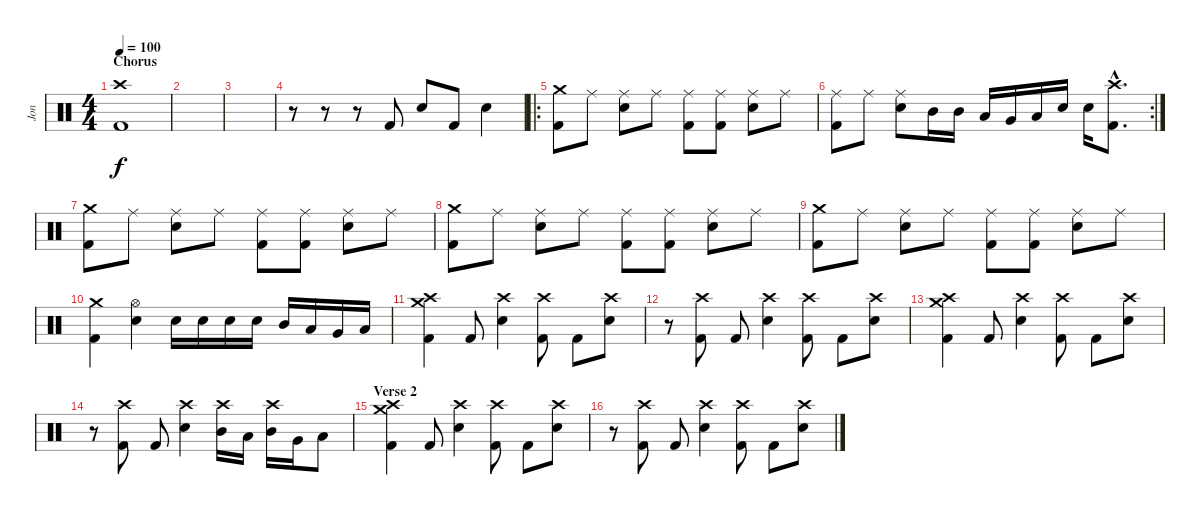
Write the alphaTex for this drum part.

\track ("Jon" "Jon") {instrument percussion}
\staff {score}
\articulation defaults
\ts (4 4)
\section ("" "Chorus")
\tempo 100
\clef neutral
\ks c
("Crash high (hit)" "Kick (hit) 2").1{dy f} |
|
|
r.8 r.8 r.8 "Kick (hit) 2".8 "Snare (hit) 2".8 "Kick (hit) 2".8 "Snare (hit) 2".4 |
\ro
("Crash medium (hit)" "Kick (hit) 2").8 "Ride (middle)".8 ("Ride (middle)" "Snare (hit) 2").8 "Ride (middle)".8 ("Ride (middle)" "Kick (hit) 2").8 ("Ride (middle)" "Kick (hit) 2").8 ("Ride (middle)" "Snare (hit) 2").8 "Ride (middle)".8 |
\rc 2
("Ride (middle)" "Kick (hit) 2").8 "Ride (middle)".8 ("Ride (middle)" "Snare (hit) 2").8 "Mid Tom (hit)".16 "Mid Tom (hit)".16 "Low Tom (hit)".16 "Very Low Tom (hit)".16 "Low Floor Tom (hit)".16 "Snare (hit) 2".16 "Snare (hit) 2".16 ("Crash high (hit)"{hac} "Kick (hit) 2"{hac}).8{d} |
("Crash medium (hit)" "Kick (hit) 2").8 "Ride (middle)".8 ("Ride (middle)" "Snare (hit) 2").8 "Ride (middle)".8 ("Ride (middle)" "Kick (hit) 2").8 ("Ride (middle)" "Kick (hit) 2").8 ("Ride (middle)" "Snare (hit) 2").8 "Ride (middle)".8 |
("Crash medium (hit)" "Kick (hit) 2").8 "Ride (middle)".8 ("Ride (middle)" "Snare (hit) 2").8 "Ride (middle)".8 ("Ride (middle)" "Kick (hit) 2").8 ("Ride (middle)" "Kick (hit) 2").8 ("Ride (middle)" "Snare (hit) 2").8 "Ride (middle)".8 |
("Crash medium (hit)" "Kick (hit) 2").8 "Ride (middle)".8 ("Ride (middle)" "Snare (hit) 2").8 "Ride (middle)".8 ("Ride (middle)" "Kick (hit) 2").8 ("Ride (middle)" "Kick (hit) 2").8 ("Ride (middle)" "Snare (hit) 2").8 "Ride (middle)".8 |
("Crash medium (hit)" "Kick (hit) 2").4 ("Hi-Hat (open)" "Snare (hit) 2").4 "Snare (hit) 2".16 "Snare (hit) 2".16 "Snare (hit) 2".16 "Snare (hit) 2".16 "Mid Tom (hit)".16 "Low Tom (hit)".16 "Very Low Tom (hit)".16 "Low Floor Tom (hit)".16 |
("Crash medium (hit)" "Crash high (hit)" "Kick (hit) 2").4 "Kick (hit) 2".8 ("Crash high (hit)" "Snare (hit) 2").4 ("Crash high (hit)" "Kick (hit) 2").8 "Kick (hit) 2".8 ("Crash high (hit)" "Snare (hit) 2").8 |
r.8 ("Crash high (hit)" "Kick (hit) 2").8 "Kick (hit) 2".8 ("Crash high (hit)" "Snare (hit) 2").4 ("Crash high (hit)" "Kick (hit) 2").8 "Kick (hit) 2".8 ("Crash high (hit)" "Snare (hit) 2").8 |
("Crash medium (hit)" "Crash high (hit)" "Kick (hit) 2").4 "Kick (hit) 2".8 ("Crash high (hit)" "Snare (hit) 2").4 ("Crash high (hit)" "Kick (hit) 2").8 "Kick (hit) 2".8 ("Crash high (hit)" "Snare (hit) 2").8 |
r.8 ("Crash high (hit)" "Kick (hit) 2").8 "Kick (hit) 2".8 ("Crash high (hit)" "Snare (hit) 2").4 ("Crash high (hit)" "Mid Tom (hit)").16 "Low Tom (hit)".16 ("Crash high (hit)" "Mid Tom (hit)").16 "Very Low Tom (hit)".16 "Low Floor Tom (hit)".8 |
\section ("" "Verse 2")
("Crash medium (hit)" "Crash high (hit)" "Kick (hit) 2").4 "Kick (hit) 2".8 ("Crash high (hit)" "Snare (hit) 2").4 ("Crash high (hit)" "Kick (hit) 2").8 "Kick (hit) 2".8 ("Crash high (hit)" "Snare (hit) 2").8 |
r.8 ("Crash high (hit)" "Kick (hit) 2").8 "Kick (hit) 2".8 ("Crash high (hit)" "Snare (hit) 2").4 ("Crash high (hit)" "Kick (hit) 2").8 "Kick (hit) 2".8 ("Crash high (hit)" "Snare (hit) 2").8
